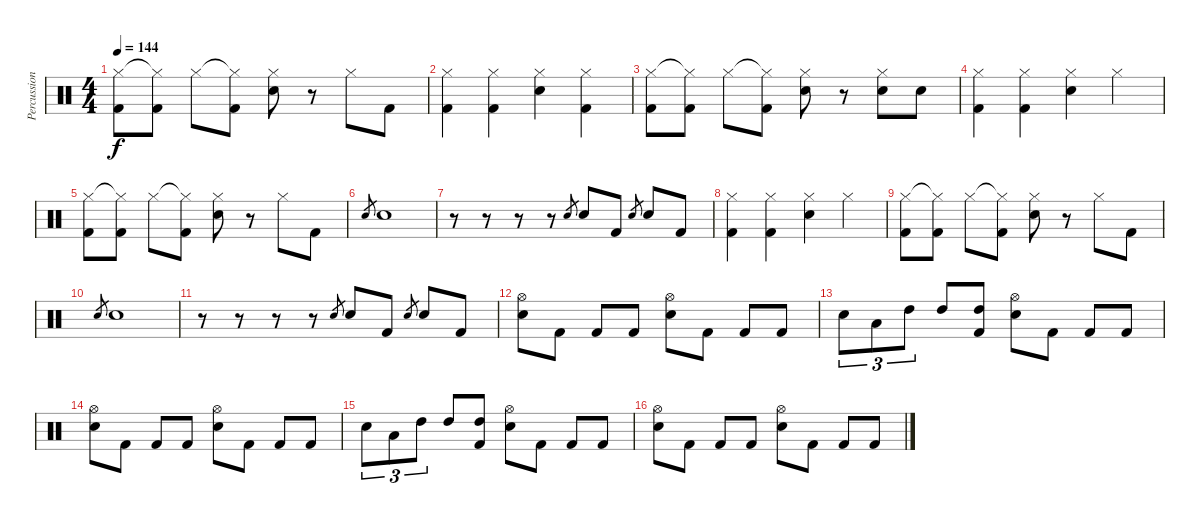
\track ("Percussion" "Percussion") {instrument percussion}
\staff {score}
\articulation defaults
\ts (4 4)
\tempo 144
\clef neutral
\ks c
("Hi-Hat (closed)" "Kick (hit) 2").8{dy f} ("Hi-Hat (closed)"{t} "Kick (hit) 2").8 "Hi-Hat (closed)".8 ("Hi-Hat (closed)"{t} "Kick (hit) 2").8 ("Hi-Hat (closed)" "Snare (hit) 2").8 r.8 "Hi-Hat (closed)".8 "Kick (hit) 2".8 |
("Hi-Hat (closed)" "Kick (hit) 2").4 ("Hi-Hat (closed)" "Kick (hit) 2").4 ("Hi-Hat (closed)" "Snare (hit) 2").4 ("Hi-Hat (closed)" "Kick (hit) 2").4 |
("Hi-Hat (closed)" "Kick (hit) 2").8 ("Hi-Hat (closed)"{t} "Kick (hit) 2").8 "Hi-Hat (closed)".8 ("Hi-Hat (closed)"{t} "Kick (hit) 2").8 ("Hi-Hat (closed)" "Snare (hit) 2").8 r.8 ("Hi-Hat (closed)" "Snare (hit) 2").8 "Snare (hit) 2".8 |
("Hi-Hat (closed)" "Kick (hit) 2").4 ("Hi-Hat (closed)" "Kick (hit) 2").4 ("Hi-Hat (closed)" "Snare (hit) 2").4 "Hi-Hat (closed)".4 |
("Hi-Hat (closed)" "Kick (hit) 2").8 ("Hi-Hat (closed)"{t} "Kick (hit) 2").8 "Hi-Hat (closed)".8 ("Hi-Hat (closed)"{t} "Kick (hit) 2").8 ("Hi-Hat (closed)" "Snare (hit) 2").8 r.8 "Hi-Hat (closed)".8 "Kick (hit) 2".8 |
"Snare (hit) 2".8{gr} "Snare (hit) 2".1 |
r.8 r.8 r.8 r.8 "Snare (hit) 2".8{gr} "Snare (hit) 2".8 "Kick (hit) 2".8 "Snare (hit) 2".8{gr} "Snare (hit) 2".8 "Kick (hit) 2".8 |
("Hi-Hat (closed)" "Kick (hit) 2").4 ("Hi-Hat (closed)" "Kick (hit) 2").4 ("Hi-Hat (closed)" "Snare (hit) 2").4 "Hi-Hat (closed)".4 |
("Hi-Hat (closed)" "Kick (hit) 2").8 ("Hi-Hat (closed)"{t} "Kick (hit) 2").8 "Hi-Hat (closed)".8 ("Hi-Hat (closed)"{t} "Kick (hit) 2").8 ("Hi-Hat (closed)" "Snare (hit) 2").8 r.8 "Hi-Hat (closed)".8 "Kick (hit) 2".8 |
"Snare (hit) 2".8{gr} "Snare (hit) 2".1 |
r.8 r.8 r.8 r.8 "Snare (hit) 2".8{gr} "Snare (hit) 2".8 "Kick (hit) 2".8 "Snare (hit) 2".8{gr} "Snare (hit) 2".8 "Kick (hit) 2".8 |
("Hi-Hat (open)" "Snare (hit) 2").8 "Kick (hit) 2".8 "Kick (hit) 2".8 "Kick (hit) 2".8 ("Hi-Hat (open)" "Snare (hit) 2").8 "Kick (hit) 2".8 "Kick (hit) 2".8 "Kick (hit) 2".8 |
"Snare (hit) 2".8{tu (3 2)} "Low Tom (hit)".8{tu (3 2)} "High Tom (hit)".8{tu (3 2)} "High Tom (hit)".8 ("High Tom (hit)" "Kick (hit) 2").8 ("Hi-Hat (open)" "Snare (hit) 2").8 "Kick (hit) 2".8 "Kick (hit) 2".8 "Kick (hit) 2".8 |
("Hi-Hat (open)" "Snare (hit) 2").8 "Kick (hit) 2".8 "Kick (hit) 2".8 "Kick (hit) 2".8 ("Hi-Hat (open)" "Snare (hit) 2").8 "Kick (hit) 2".8 "Kick (hit) 2".8 "Kick (hit) 2".8 |
"Snare (hit) 2".8{tu (3 2)} "Low Tom (hit)".8{tu (3 2)} "High Tom (hit)".8{tu (3 2)} "High Tom (hit)".8 ("High Tom (hit)" "Kick (hit) 2").8 ("Hi-Hat (open)" "Snare (hit) 2").8 "Kick (hit) 2".8 "Kick (hit) 2".8 "Kick (hit) 2".8 |
("Hi-Hat (open)" "Snare (hit) 2").8 "Kick (hit) 2".8 "Kick (hit) 2".8 "Kick (hit) 2".8 ("Hi-Hat (open)" "Snare (hit) 2").8 "Kick (hit) 2".8 "Kick (hit) 2".8 "Kick (hit) 2".8
